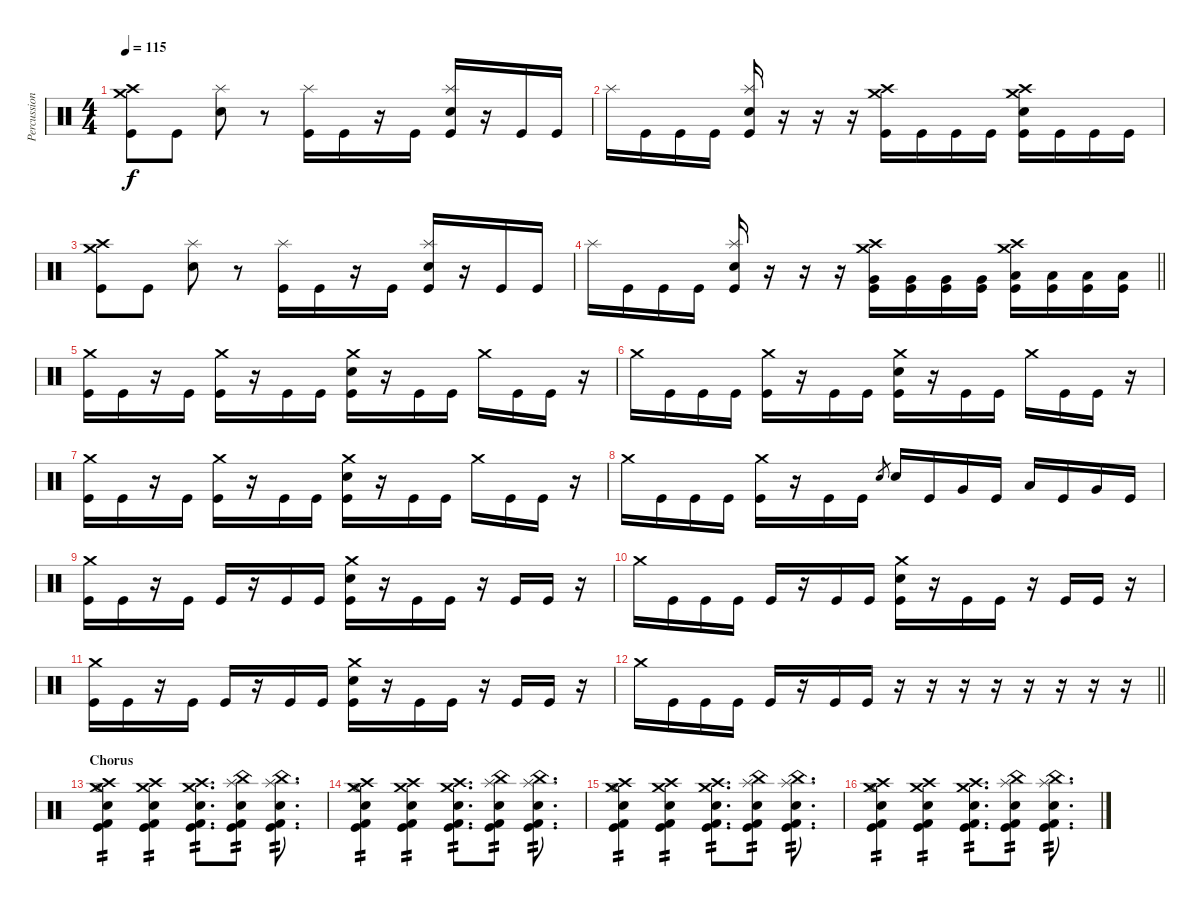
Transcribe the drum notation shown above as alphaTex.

\track ("Percussion (Approx.)" "Percussion") {instrument percussion}
\staff {score}
\articulation defaults
\ts (4 4)
\tempo 115
\clef neutral
\ks c
("Crash medium (hit)" "Crash high (hit)" "Kick (hit)").8{dy f} "Kick (hit)".8 ("Splash (hit)" "Electric Snare (hit)").8 r.8 ("Splash (hit)" "Kick (hit)").16 "Kick (hit)".16 r.16 "Kick (hit)".16 ("Splash (hit)" "Electric Snare (hit)" "Kick (hit)").16 r.16 "Kick (hit)".16 "Kick (hit)".16 |
"Splash (hit)".16 "Kick (hit)".16 "Kick (hit)".16 "Kick (hit)".16 ("Splash (hit)" "Electric Snare (hit)" "Kick (hit)").16 r.16 r.16 r.16 ("Crash medium (hit)" "Crash high (hit)" "Kick (hit)").16 "Kick (hit)".16 "Kick (hit)".16 "Kick (hit)".16 ("Crash medium (hit)" "Crash high (hit)" "Electric Snare (hit)" "Kick (hit)").16 "Kick (hit)".16 "Kick (hit)".16 "Kick (hit)".16 |
("Crash medium (hit)" "Crash high (hit)" "Kick (hit)").8 "Kick (hit)".8 ("Splash (hit)" "Electric Snare (hit)").8 r.8 ("Splash (hit)" "Kick (hit)").16 "Kick (hit)".16 r.16 "Kick (hit)".16 ("Splash (hit)" "Electric Snare (hit)" "Kick (hit)").16 r.16 "Kick (hit)".16 "Kick (hit)".16 |
\barLineRight lightlight "Splash (hit)".16 "Kick (hit)".16 "Kick (hit)".16 "Kick (hit)".16
("Splash (hit)" "Electric Snare (hit)" "Kick (hit)").16 r.16 r.16 r.16 ("Crash medium (hit)" "Crash high (hit)" "Very Low Tom (hit)" "Kick (hit)").16 ("Very Low Tom (hit)" "Kick (hit)").16 ("Very Low Tom (hit)" "Kick (hit)").16 ("Very Low Tom (hit)" "Kick (hit)").16 ("Crash medium (hit)" "Crash high (hit)" "Low Floor Tom (hit)" "Kick (hit)").16 ("Low Floor Tom (hit)" "Kick (hit)").16 ("Low Floor Tom (hit)" "Kick (hit)").16 ("Low Floor Tom (hit)" "Kick (hit)").16 |
\section ("" "")
("Crash medium (hit)" "Kick (hit)").16 "Kick (hit)".16 r.16 "Kick (hit)".16 ("Crash medium (hit)" "Kick (hit)").16 r.16 "Kick (hit)".16 "Kick (hit)".16 ("Crash medium (hit)" "Electric Snare (hit)" "Kick (hit)").16 r.16 "Kick (hit)".16 "Kick (hit)".16 "Crash medium (hit)".16 "Kick (hit)".16 "Kick (hit)".16 r.16 |
"Crash medium (hit)".16 "Kick (hit)".16 "Kick (hit)".16 "Kick (hit)".16 ("Crash medium (hit)" "Kick (hit)").16 r.16 "Kick (hit)".16 "Kick (hit)".16 ("Crash medium (hit)" "Electric Snare (hit)" "Kick (hit)").16 r.16 "Kick (hit)".16 "Kick (hit)".16 "Crash medium (hit)".16 "Kick (hit)".16 "Kick (hit)".16 r.16 |
("Crash medium (hit)" "Kick (hit)").16 "Kick (hit)".16 r.16 "Kick (hit)".16 ("Crash medium (hit)" "Kick (hit)").16 r.16 "Kick (hit)".16 "Kick (hit)".16 ("Crash medium (hit)" "Electric Snare (hit)" "Kick (hit)").16 r.16 "Kick (hit)".16 "Kick (hit)".16 "Crash medium (hit)".16 "Kick (hit)".16 "Kick (hit)".16 r.16 |
"Crash medium (hit)".16 "Kick (hit)".16 "Kick (hit)".16 "Kick (hit)".16 ("Crash medium (hit)" "Kick (hit)").16 r.16 "Kick (hit)".16 "Kick (hit)".16 "Electric Snare (hit)".8{gr} "Electric Snare (hit)".16 "Kick (hit)".16 "Very Low Tom (hit)".16 "Kick (hit)".16 "Low Floor Tom (hit)".16 "Kick (hit)".16 "Very Low Tom (hit)".16 "Kick (hit)".16 |
("Crash medium (hit)" "Kick (hit)").16 "Kick (hit)".16 r.16 "Kick (hit)".16 "Kick (hit)".16 r.16 "Kick (hit)".16 "Kick (hit)".16 ("Crash medium (hit)" "Electric Snare (hit)" "Kick (hit)").16 r.16 "Kick (hit)".16 "Kick (hit)".16 r.16 "Kick (hit)".16 "Kick (hit)".16 r.16 |
"Crash medium (hit)".16 "Kick (hit)".16 "Kick (hit)".16 "Kick (hit)".16 "Kick (hit)".16 r.16 "Kick (hit)".16 "Kick (hit)".16 ("Crash medium (hit)" "Electric Snare (hit)" "Kick (hit)").16 r.16 "Kick (hit)".16 "Kick (hit)".16 r.16 "Kick (hit)".16 "Kick (hit)".16 r.16 |
("Crash medium (hit)" "Kick (hit)").16 "Kick (hit)".16 r.16 "Kick (hit)".16 "Kick (hit)".16 r.16 "Kick (hit)".16 "Kick (hit)".16 ("Crash medium (hit)" "Electric Snare (hit)" "Kick (hit)").16 r.16 "Kick (hit)".16 "Kick (hit)".16 r.16 "Kick (hit)".16 "Kick (hit)".16 r.16 |
\barLineRight lightlight "Crash medium (hit)".16 "Kick (hit)".16 "Kick (hit)".16 "Kick (hit)".16 "Kick (hit)".16
r.16 "Kick (hit)".16 "Kick (hit)".16 r.16 r.16 r.16 r.16 r.16 r.16 r.16 r.16 |
\section ("" "Chorus")
("Hi-Hat (open)" "Crash medium (hit)" "Crash high (hit)" "Kick (hit) 2" "Kick (hit)" "Electric Snare (hit)").4{tp 2} ("Crash medium (hit)" "Crash high (hit)" "Kick (hit) 2" "Kick (hit)" "Electric Snare (hit)").4{tp 2} ("Crash medium (hit)" "Crash high (hit)" "Kick (hit) 2" "Kick (hit)" "Electric Snare (hit)").8{d tp 2} ("China (hit)" "Splash (hit)" "Kick (hit) 2" "Kick (hit)" "Electric Snare (hit)").8{tp 2} ("China (hit)" "Splash (hit)" "Kick (hit) 2" "Kick (hit)" "Electric Snare (hit)").8{d tp 2} |
("Hi-Hat (open)" "Crash medium (hit)" "Crash high (hit)" "Kick (hit) 2" "Kick (hit)" "Electric Snare (hit)").4{tp 2} ("Crash medium (hit)" "Crash high (hit)" "Kick (hit) 2" "Kick (hit)" "Electric Snare (hit)").4{tp 2} ("Crash medium (hit)" "Crash high (hit)" "Kick (hit) 2" "Kick (hit)" "Electric Snare (hit)").8{d tp 2} ("China (hit)" "Splash (hit)" "Kick (hit) 2" "Kick (hit)" "Electric Snare (hit)").8{tp 2} ("China (hit)" "Splash (hit)" "Kick (hit) 2" "Kick (hit)" "Electric Snare (hit)").8{d tp 2} |
("Hi-Hat (open)" "Crash medium (hit)" "Crash high (hit)" "Kick (hit) 2" "Kick (hit)" "Electric Snare (hit)").4{tp 2} ("Crash medium (hit)" "Crash high (hit)" "Kick (hit) 2" "Kick (hit)" "Electric Snare (hit)").4{tp 2} ("Crash medium (hit)" "Crash high (hit)" "Kick (hit) 2" "Kick (hit)" "Electric Snare (hit)").8{d tp 2} ("China (hit)" "Splash (hit)" "Kick (hit) 2" "Kick (hit)" "Electric Snare (hit)").8{tp 2} ("China (hit)" "Splash (hit)" "Kick (hit) 2" "Kick (hit)" "Electric Snare (hit)").8{d tp 2} |
("Hi-Hat (open)" "Crash medium (hit)" "Crash high (hit)" "Kick (hit) 2" "Kick (hit)" "Electric Snare (hit)").4{tp 2} ("Crash medium (hit)" "Crash high (hit)" "Kick (hit) 2" "Kick (hit)" "Electric Snare (hit)").4{tp 2} ("Crash medium (hit)" "Crash high (hit)" "Kick (hit) 2" "Kick (hit)" "Electric Snare (hit)").8{d tp 2} ("China (hit)" "Splash (hit)" "Kick (hit) 2" "Kick (hit)" "Electric Snare (hit)").8{tp 2} ("China (hit)" "Splash (hit)" "Kick (hit) 2" "Kick (hit)" "Electric Snare (hit)").8{d tp 2}
